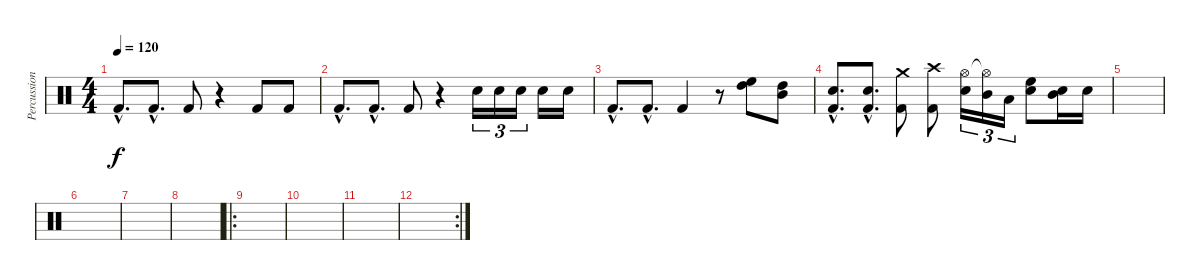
\track ("Percussion" "Percussion") {instrument percussion}
\staff {score}
\articulation defaults
\ts (4 4)
\tempo 120
\clef neutral
\ks c "Kick (hit) 2"{hac}.8{d dy f} "Kick (hit) 2"{hac}.8{d} "Kick (hit) 2".8
r.4 "Kick (hit) 2".8 "Kick (hit) 2".8 |
"Kick (hit) 2"{hac}.8{d} "Kick (hit) 2"{hac}.8{d} "Kick (hit) 2".8 r.4 "Snare (hit) 2".16{tu (3 2)} "Snare (hit) 2".16{tu (3 2)} "Snare (hit) 2".16{tu (3 2)} "Snare (hit) 2".16 "Snare (hit) 2".16 |
"Kick (hit) 2"{hac}.8{d} "Kick (hit) 2"{hac}.8{d} "Kick (hit) 2".4 r.8 ("High Tom (hit)" "High Floor Tom (hit)").8 ("Mid Tom (hit)" "High Tom (hit)").8 |
("Snare (hit) 2"{hac} "Kick (hit) 2"{hac}).8{d} ("Snare (hit) 2"{hac} "Kick (hit) 2"{hac}).8{d} ("Crash medium (hit)" "Kick (hit) 2").8 ("Crash high (hit)" "Kick (hit) 2").8 ("Hi-Hat (open)" "Snare (hit) 2").16{tu (3 2)} ("Hi-Hat (open)"{t} "Mid Tom (hit)").16{tu (3 2)} "Low Tom (hit)".16{tu (3 2)} ("High Floor Tom (hit)" "Snare (hit) 2").8 ("Mid Tom (hit)" "Snare (hit) 2").16 "Snare (hit) 2".16 |
|
|
|
|
\ro
|
|
|
\rc 2
